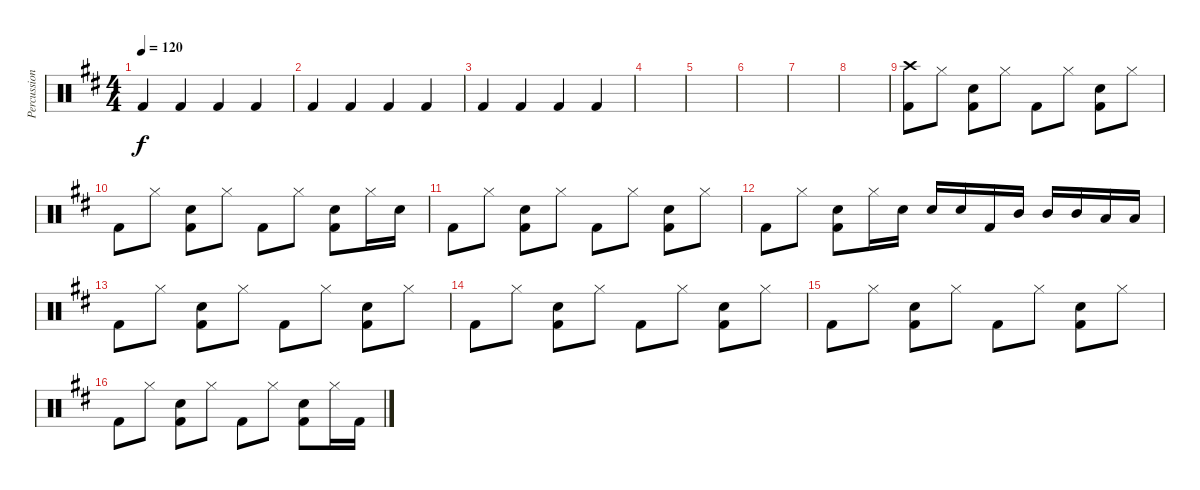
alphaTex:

\track ("Percussion" "Percussion") {instrument percussion}
\staff {score}
\articulation defaults
\ts (4 4)
\tempo 120
\clef neutral
\ks d "Kick (hit) 2".4{dy f} "Kick (hit) 2".4 "Kick (hit) 2".4 "Kick (hit) 2".4
|
"Kick (hit) 2".4 "Kick (hit) 2".4 "Kick (hit) 2".4 "Kick (hit) 2".4 |
"Kick (hit) 2".4 "Kick (hit) 2".4 "Kick (hit) 2".4 "Kick (hit) 2".4 |
|
|
|
|
|
("Crash high (hit)" "Kick (hit) 2").8 "Hi-Hat (closed)".8 ("Snare (hit) 2" "Kick (hit) 2").8 "Hi-Hat (closed)".8 "Kick (hit) 2".8 "Hi-Hat (closed)".8 ("Snare (hit) 2" "Kick (hit) 2").8 "Hi-Hat (closed)".8 |
"Kick (hit) 2".8 "Hi-Hat (closed)".8 ("Snare (hit) 2" "Kick (hit) 2").8 "Hi-Hat (closed)".8 "Kick (hit) 2".8 "Hi-Hat (closed)".8 ("Snare (hit) 2" "Kick (hit) 2").8 "Hi-Hat (closed)".16 "Snare (hit) 2".16 |
"Kick (hit) 2".8 "Hi-Hat (closed)".8 ("Snare (hit) 2" "Kick (hit) 2").8 "Hi-Hat (closed)".8 "Kick (hit) 2".8 "Hi-Hat (closed)".8 ("Snare (hit) 2" "Kick (hit) 2").8 "Hi-Hat (closed)".8 |
"Kick (hit) 2".8 "Hi-Hat (closed)".8 ("Snare (hit) 2" "Kick (hit) 2").8 "Hi-Hat (closed)".16 "Snare (hit) 2".16 "Snare (hit) 2".16 "Snare (hit) 2".16 "Kick (hit) 2".16 "Mid Tom (hit)".16 "Mid Tom (hit)".16 "Mid Tom (hit)".16 "Low Tom (hit)".16 "Low Tom (hit)".16 |
"Kick (hit) 2".8 "Hi-Hat (closed)".8 ("Snare (hit) 2" "Kick (hit) 2").8 "Hi-Hat (closed)".8 "Kick (hit) 2".8 "Hi-Hat (closed)".8 ("Snare (hit) 2" "Kick (hit) 2").8 "Hi-Hat (closed)".8 |
"Kick (hit) 2".8 "Hi-Hat (closed)".8 ("Snare (hit) 2" "Kick (hit) 2").8 "Hi-Hat (closed)".8 "Kick (hit) 2".8 "Hi-Hat (closed)".8 ("Snare (hit) 2" "Kick (hit) 2").8 "Hi-Hat (closed)".8 |
"Kick (hit) 2".8 "Hi-Hat (closed)".8 ("Snare (hit) 2" "Kick (hit) 2").8 "Hi-Hat (closed)".8 "Kick (hit) 2".8 "Hi-Hat (closed)".8 ("Snare (hit) 2" "Kick (hit) 2").8 "Hi-Hat (closed)".8 |
"Kick (hit) 2".8 "Hi-Hat (closed)".8 ("Snare (hit) 2" "Kick (hit) 2").8 "Hi-Hat (closed)".8 "Kick (hit) 2".8 "Hi-Hat (closed)".8 ("Snare (hit) 2" "Kick (hit) 2").8 "Hi-Hat (closed)".16 "Kick (hit) 2".16
